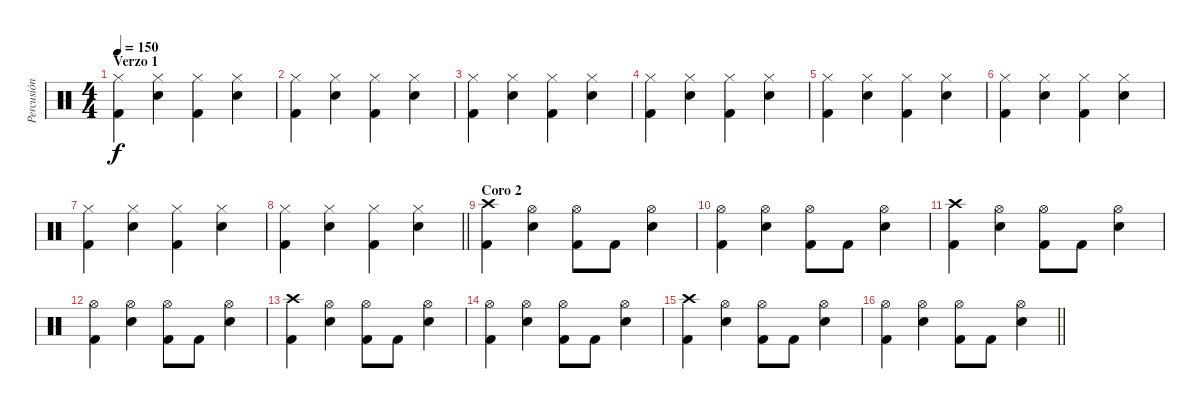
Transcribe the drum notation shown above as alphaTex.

\track ("Percusión" "Percusión") {instrument percussion}
\staff {score}
\articulation defaults
\ts (4 4)
\section ("" "Verzo 1")
\tempo 150
\clef neutral
\ks c
("Hi-Hat (closed)" "Kick (hit) 2").4{dy f} ("Hi-Hat (closed)" "Electric Snare (hit)").4 ("Hi-Hat (closed)" "Kick (hit) 2").4 ("Hi-Hat (closed)" "Electric Snare (hit)").4 |
("Hi-Hat (closed)" "Kick (hit) 2").4 ("Hi-Hat (closed)" "Electric Snare (hit)").4 ("Hi-Hat (closed)" "Kick (hit) 2").4 ("Hi-Hat (closed)" "Electric Snare (hit)").4 |
("Hi-Hat (closed)" "Kick (hit) 2").4 ("Hi-Hat (closed)" "Electric Snare (hit)").4 ("Hi-Hat (closed)" "Kick (hit) 2").4 ("Hi-Hat (closed)" "Electric Snare (hit)").4 |
("Hi-Hat (closed)" "Kick (hit) 2").4 ("Hi-Hat (closed)" "Electric Snare (hit)").4 ("Hi-Hat (closed)" "Kick (hit) 2").4 ("Hi-Hat (closed)" "Electric Snare (hit)").4 |
("Hi-Hat (closed)" "Kick (hit) 2").4 ("Hi-Hat (closed)" "Electric Snare (hit)").4 ("Hi-Hat (closed)" "Kick (hit) 2").4 ("Hi-Hat (closed)" "Electric Snare (hit)").4 |
("Hi-Hat (closed)" "Kick (hit) 2").4 ("Hi-Hat (closed)" "Electric Snare (hit)").4 ("Hi-Hat (closed)" "Kick (hit) 2").4 ("Hi-Hat (closed)" "Electric Snare (hit)").4 |
("Hi-Hat (closed)" "Kick (hit) 2").4 ("Hi-Hat (closed)" "Electric Snare (hit)").4 ("Hi-Hat (closed)" "Kick (hit) 2").4 ("Hi-Hat (closed)" "Electric Snare (hit)").4 |
\barLineRight lightlight
("Hi-Hat (closed)" "Kick (hit) 2").4 ("Hi-Hat (closed)" "Electric Snare (hit)").4 ("Hi-Hat (closed)" "Kick (hit) 2").4 ("Hi-Hat (closed)" "Electric Snare (hit)").4 |
\section ("" "Coro 2")
("Crash high (hit)" "Kick (hit) 2").4 ("Hi-Hat (open)" "Electric Snare (hit)").4 ("Hi-Hat (open)" "Kick (hit) 2").8 "Kick (hit) 2".8 ("Hi-Hat (open)" "Electric Snare (hit)").4 |
("Hi-Hat (open)" "Kick (hit) 2").4 ("Hi-Hat (open)" "Electric Snare (hit)").4 ("Hi-Hat (open)" "Kick (hit) 2").8 "Kick (hit) 2".8 ("Hi-Hat (open)" "Electric Snare (hit)").4 |
("Crash high (hit)" "Kick (hit) 2").4 ("Hi-Hat (open)" "Electric Snare (hit)").4 ("Hi-Hat (open)" "Kick (hit) 2").8 "Kick (hit) 2".8 ("Hi-Hat (open)" "Electric Snare (hit)").4 |
("Hi-Hat (open)" "Kick (hit) 2").4 ("Hi-Hat (open)" "Electric Snare (hit)").4 ("Hi-Hat (open)" "Kick (hit) 2").8 "Kick (hit) 2".8 ("Hi-Hat (open)" "Electric Snare (hit)").4 |
("Crash high (hit)" "Kick (hit) 2").4 ("Hi-Hat (open)" "Electric Snare (hit)").4 ("Hi-Hat (open)" "Kick (hit) 2").8 "Kick (hit) 2".8 ("Hi-Hat (open)" "Electric Snare (hit)").4 |
("Hi-Hat (open)" "Kick (hit) 2").4 ("Hi-Hat (open)" "Electric Snare (hit)").4 ("Hi-Hat (open)" "Kick (hit) 2").8 "Kick (hit) 2".8 ("Hi-Hat (open)" "Electric Snare (hit)").4 |
("Crash high (hit)" "Kick (hit) 2").4 ("Hi-Hat (open)" "Electric Snare (hit)").4 ("Hi-Hat (open)" "Kick (hit) 2").8 "Kick (hit) 2".8 ("Hi-Hat (open)" "Electric Snare (hit)").4 |
\barLineRight lightlight
("Hi-Hat (open)" "Kick (hit) 2").4 ("Hi-Hat (open)" "Electric Snare (hit)").4 ("Hi-Hat (open)" "Kick (hit) 2").8 "Kick (hit) 2".8 ("Hi-Hat (open)" "Electric Snare (hit)").4
